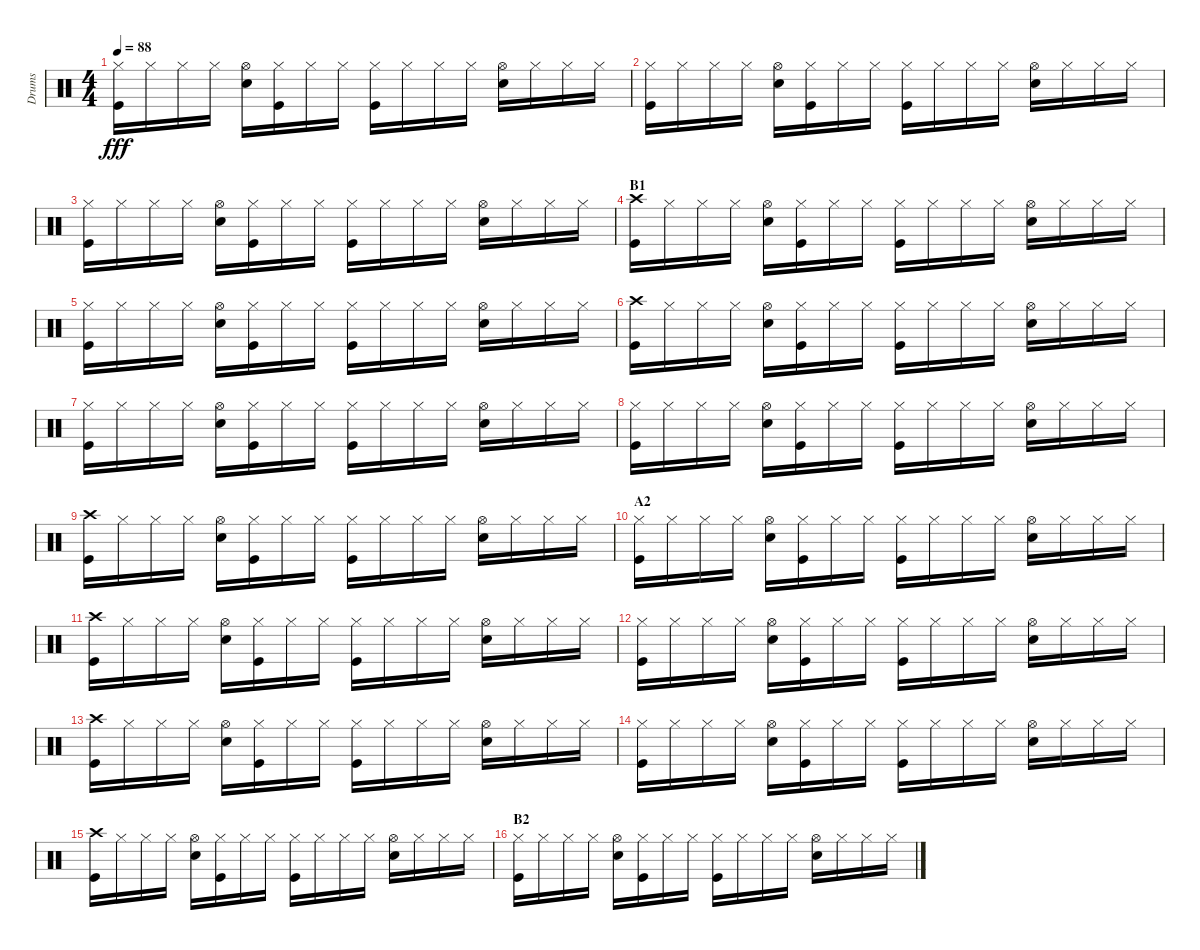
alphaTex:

\track ("Drums" "Drums") {instrument percussion}
\staff {score}
\articulation defaults
\ts (4 4)
\tempo 88
\clef neutral
\ks c
("Hi-Hat (closed)" "Kick (hit)").16{dy fff} "Hi-Hat (closed)".16 "Hi-Hat (closed)".16 "Hi-Hat (closed)".16 ("Hi-Hat (open)" "Snare (hit) 2").16 ("Hi-Hat (closed)" "Kick (hit)").16 "Hi-Hat (closed)".16 "Hi-Hat (closed)".16 ("Hi-Hat (closed)" "Kick (hit)").16 "Hi-Hat (closed)".16 "Hi-Hat (closed)".16 "Hi-Hat (closed)".16 ("Hi-Hat (open)" "Snare (hit) 2").16 "Hi-Hat (closed)".16 "Hi-Hat (closed)".16 "Hi-Hat (closed)".16 |
("Hi-Hat (closed)" "Kick (hit)").16 "Hi-Hat (closed)".16 "Hi-Hat (closed)".16 "Hi-Hat (closed)".16 ("Hi-Hat (open)" "Snare (hit) 2").16 ("Hi-Hat (closed)" "Kick (hit)").16 "Hi-Hat (closed)".16 "Hi-Hat (closed)".16 ("Hi-Hat (closed)" "Kick (hit)").16 "Hi-Hat (closed)".16 "Hi-Hat (closed)".16 "Hi-Hat (closed)".16 ("Hi-Hat (open)" "Snare (hit) 2").16 "Hi-Hat (closed)".16 "Hi-Hat (closed)".16 "Hi-Hat (closed)".16 |
("Hi-Hat (closed)" "Kick (hit)").16 "Hi-Hat (closed)".16 "Hi-Hat (closed)".16 "Hi-Hat (closed)".16 ("Hi-Hat (open)" "Snare (hit) 2").16 ("Hi-Hat (closed)" "Kick (hit)").16 "Hi-Hat (closed)".16 "Hi-Hat (closed)".16 ("Hi-Hat (closed)" "Kick (hit)").16 "Hi-Hat (closed)".16 "Hi-Hat (closed)".16 "Hi-Hat (closed)".16 ("Hi-Hat (open)" "Snare (hit) 2").16 "Hi-Hat (closed)".16 "Hi-Hat (closed)".16 "Hi-Hat (closed)".16 |
\section ("" "B1")
("Crash high (hit)" "Kick (hit)").16 "Hi-Hat (closed)".16 "Hi-Hat (closed)".16 "Hi-Hat (closed)".16 ("Hi-Hat (open)" "Snare (hit) 2").16 ("Hi-Hat (closed)" "Kick (hit)").16 "Hi-Hat (closed)".16 "Hi-Hat (closed)".16 ("Hi-Hat (closed)" "Kick (hit)").16 "Hi-Hat (closed)".16 "Hi-Hat (closed)".16 "Hi-Hat (closed)".16 ("Hi-Hat (open)" "Snare (hit) 2").16 "Hi-Hat (closed)".16 "Hi-Hat (closed)".16 "Hi-Hat (closed)".16 |
("Hi-Hat (closed)" "Kick (hit)").16 "Hi-Hat (closed)".16 "Hi-Hat (closed)".16 "Hi-Hat (closed)".16 ("Hi-Hat (open)" "Snare (hit) 2").16 ("Hi-Hat (closed)" "Kick (hit)").16 "Hi-Hat (closed)".16 "Hi-Hat (closed)".16 ("Hi-Hat (closed)" "Kick (hit)").16 "Hi-Hat (closed)".16 "Hi-Hat (closed)".16 "Hi-Hat (closed)".16 ("Hi-Hat (open)" "Snare (hit) 2").16 "Hi-Hat (closed)".16 "Hi-Hat (closed)".16 "Hi-Hat (closed)".16 |
("Crash high (hit)" "Kick (hit)").16 "Hi-Hat (closed)".16 "Hi-Hat (closed)".16 "Hi-Hat (closed)".16 ("Hi-Hat (open)" "Snare (hit) 2").16 ("Hi-Hat (closed)" "Kick (hit)").16 "Hi-Hat (closed)".16 "Hi-Hat (closed)".16 ("Hi-Hat (closed)" "Kick (hit)").16 "Hi-Hat (closed)".16 "Hi-Hat (closed)".16 "Hi-Hat (closed)".16 ("Hi-Hat (open)" "Snare (hit) 2").16 "Hi-Hat (closed)".16 "Hi-Hat (closed)".16 "Hi-Hat (closed)".16 |
("Hi-Hat (closed)" "Kick (hit)").16 "Hi-Hat (closed)".16 "Hi-Hat (closed)".16 "Hi-Hat (closed)".16 ("Hi-Hat (open)" "Snare (hit) 2").16 ("Hi-Hat (closed)" "Kick (hit)").16 "Hi-Hat (closed)".16 "Hi-Hat (closed)".16 ("Hi-Hat (closed)" "Kick (hit)").16 "Hi-Hat (closed)".16 "Hi-Hat (closed)".16 "Hi-Hat (closed)".16 ("Hi-Hat (open)" "Snare (hit) 2").16 "Hi-Hat (closed)".16 "Hi-Hat (closed)".16 "Hi-Hat (closed)".16 |
("Hi-Hat (closed)" "Kick (hit)").16 "Hi-Hat (closed)".16 "Hi-Hat (closed)".16 "Hi-Hat (closed)".16 ("Hi-Hat (open)" "Snare (hit) 2").16 ("Hi-Hat (closed)" "Kick (hit)").16 "Hi-Hat (closed)".16 "Hi-Hat (closed)".16 ("Hi-Hat (closed)" "Kick (hit)").16 "Hi-Hat (closed)".16 "Hi-Hat (closed)".16 "Hi-Hat (closed)".16 ("Hi-Hat (open)" "Snare (hit) 2").16 "Hi-Hat (closed)".16 "Hi-Hat (closed)".16 "Hi-Hat (closed)".16 |
("Crash high (hit)" "Kick (hit)").16 "Hi-Hat (closed)".16 "Hi-Hat (closed)".16 "Hi-Hat (closed)".16 ("Hi-Hat (open)" "Snare (hit) 2").16 ("Hi-Hat (closed)" "Kick (hit)").16 "Hi-Hat (closed)".16 "Hi-Hat (closed)".16 ("Hi-Hat (closed)" "Kick (hit)").16 "Hi-Hat (closed)".16 "Hi-Hat (closed)".16 "Hi-Hat (closed)".16 ("Hi-Hat (open)" "Snare (hit) 2").16 "Hi-Hat (closed)".16 "Hi-Hat (closed)".16 "Hi-Hat (closed)".16 |
\section ("" "A2")
("Hi-Hat (closed)" "Kick (hit)").16 "Hi-Hat (closed)".16 "Hi-Hat (closed)".16 "Hi-Hat (closed)".16 ("Hi-Hat (open)" "Snare (hit) 2").16 ("Hi-Hat (closed)" "Kick (hit)").16 "Hi-Hat (closed)".16 "Hi-Hat (closed)".16 ("Hi-Hat (closed)" "Kick (hit)").16 "Hi-Hat (closed)".16 "Hi-Hat (closed)".16 "Hi-Hat (closed)".16 ("Hi-Hat (open)" "Snare (hit) 2").16 "Hi-Hat (closed)".16 "Hi-Hat (closed)".16 "Hi-Hat (closed)".16 |
("Crash high (hit)" "Kick (hit)").16 "Hi-Hat (closed)".16 "Hi-Hat (closed)".16 "Hi-Hat (closed)".16 ("Hi-Hat (open)" "Snare (hit) 2").16 ("Hi-Hat (closed)" "Kick (hit)").16 "Hi-Hat (closed)".16 "Hi-Hat (closed)".16 ("Hi-Hat (closed)" "Kick (hit)").16 "Hi-Hat (closed)".16 "Hi-Hat (closed)".16 "Hi-Hat (closed)".16 ("Hi-Hat (open)" "Snare (hit) 2").16 "Hi-Hat (closed)".16 "Hi-Hat (closed)".16 "Hi-Hat (closed)".16 |
("Hi-Hat (closed)" "Kick (hit)").16 "Hi-Hat (closed)".16 "Hi-Hat (closed)".16 "Hi-Hat (closed)".16 ("Hi-Hat (open)" "Snare (hit) 2").16 ("Hi-Hat (closed)" "Kick (hit)").16 "Hi-Hat (closed)".16 "Hi-Hat (closed)".16 ("Hi-Hat (closed)" "Kick (hit)").16 "Hi-Hat (closed)".16 "Hi-Hat (closed)".16 "Hi-Hat (closed)".16 ("Hi-Hat (open)" "Snare (hit) 2").16 "Hi-Hat (closed)".16 "Hi-Hat (closed)".16 "Hi-Hat (closed)".16 |
("Crash high (hit)" "Kick (hit)").16 "Hi-Hat (closed)".16 "Hi-Hat (closed)".16 "Hi-Hat (closed)".16 ("Hi-Hat (open)" "Snare (hit) 2").16 ("Hi-Hat (closed)" "Kick (hit)").16 "Hi-Hat (closed)".16 "Hi-Hat (closed)".16 ("Hi-Hat (closed)" "Kick (hit)").16 "Hi-Hat (closed)".16 "Hi-Hat (closed)".16 "Hi-Hat (closed)".16 ("Hi-Hat (open)" "Snare (hit) 2").16 "Hi-Hat (closed)".16 "Hi-Hat (closed)".16 "Hi-Hat (closed)".16 |
("Hi-Hat (closed)" "Kick (hit)").16 "Hi-Hat (closed)".16 "Hi-Hat (closed)".16 "Hi-Hat (closed)".16 ("Hi-Hat (open)" "Snare (hit) 2").16 ("Hi-Hat (closed)" "Kick (hit)").16 "Hi-Hat (closed)".16 "Hi-Hat (closed)".16 ("Hi-Hat (closed)" "Kick (hit)").16 "Hi-Hat (closed)".16 "Hi-Hat (closed)".16 "Hi-Hat (closed)".16 ("Hi-Hat (open)" "Snare (hit) 2").16 "Hi-Hat (closed)".16 "Hi-Hat (closed)".16 "Hi-Hat (closed)".16 |
("Crash high (hit)" "Kick (hit)").16 "Hi-Hat (closed)".16 "Hi-Hat (closed)".16 "Hi-Hat (closed)".16 ("Hi-Hat (open)" "Snare (hit) 2").16 ("Hi-Hat (closed)" "Kick (hit)").16 "Hi-Hat (closed)".16 "Hi-Hat (closed)".16 ("Hi-Hat (closed)" "Kick (hit)").16 "Hi-Hat (closed)".16 "Hi-Hat (closed)".16 "Hi-Hat (closed)".16 ("Hi-Hat (open)" "Snare (hit) 2").16 "Hi-Hat (closed)".16 "Hi-Hat (closed)".16 "Hi-Hat (closed)".16 |
\section ("" "B2")
("Hi-Hat (closed)" "Kick (hit)").16 "Hi-Hat (closed)".16 "Hi-Hat (closed)".16 "Hi-Hat (closed)".16 ("Hi-Hat (open)" "Snare (hit) 2").16 ("Hi-Hat (closed)" "Kick (hit)").16 "Hi-Hat (closed)".16 "Hi-Hat (closed)".16 ("Hi-Hat (closed)" "Kick (hit)").16 "Hi-Hat (closed)".16 "Hi-Hat (closed)".16 "Hi-Hat (closed)".16 ("Hi-Hat (open)" "Snare (hit) 2").16 "Hi-Hat (closed)".16 "Hi-Hat (closed)".16 "Hi-Hat (closed)".16
